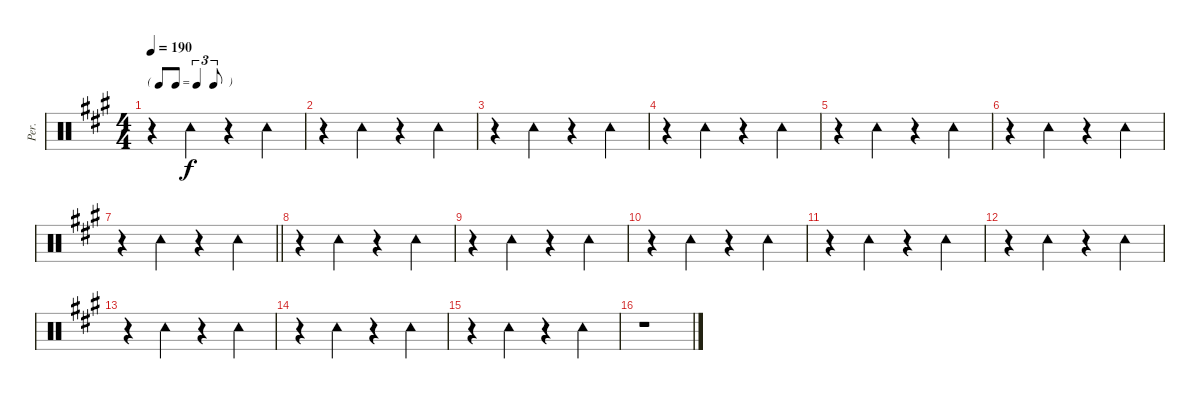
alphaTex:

\track ("Per." "Per.") {instrument percussion}
\staff {score}
\articulation defaults
\ts (4 4)
\tf triplet8th
\tempo 190
\clef neutral
\ks a
r.4{dy f} "Tambourine (hit)".4 r.4 "Tambourine (hit)".4 |
r.4 "Tambourine (hit)".4 r.4 "Tambourine (hit)".4 |
r.4 "Tambourine (hit)".4 r.4 "Tambourine (hit)".4 |
r.4 "Tambourine (hit)".4 r.4 "Tambourine (hit)".4 |
r.4 "Tambourine (hit)".4 r.4 "Tambourine (hit)".4 |
r.4 "Tambourine (hit)".4 r.4 "Tambourine (hit)".4 |
\barLineRight lightlight
r.4 "Tambourine (hit)".4 r.4 "Tambourine (hit)".4 |
r.4 "Tambourine (hit)".4 r.4 "Tambourine (hit)".4 |
r.4 "Tambourine (hit)".4 r.4 "Tambourine (hit)".4 |
r.4 "Tambourine (hit)".4 r.4 "Tambourine (hit)".4 |
r.4 "Tambourine (hit)".4 r.4 "Tambourine (hit)".4 |
r.4 "Tambourine (hit)".4 r.4 "Tambourine (hit)".4 |
r.4 "Tambourine (hit)".4 r.4 "Tambourine (hit)".4 |
r.4 "Tambourine (hit)".4 r.4 "Tambourine (hit)".4 |
r.4 "Tambourine (hit)".4 r.4 "Tambourine (hit)".4 |
r.1
